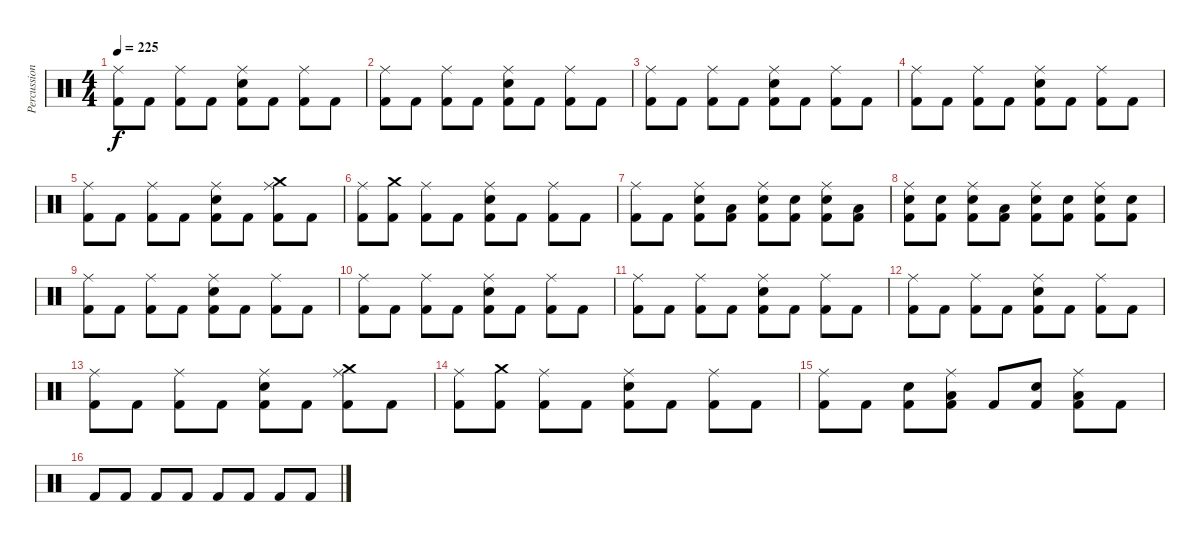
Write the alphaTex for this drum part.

\track ("Percussion" "Percussion") {instrument percussion}
\staff {score}
\articulation defaults
\ts (4 4)
\tempo 225
\clef neutral
\ks c
("Ride (middle)" "Kick (hit) 2").8{dy f volume 5} "Kick (hit) 2".8 ("Ride (middle)" "Kick (hit) 2").8 "Kick (hit) 2".8 ("Ride (middle)" "Snare (hit) 2" "Kick (hit) 2").8 "Kick (hit) 2".8 ("Ride (middle)" "Kick (hit) 2").8 "Kick (hit) 2".8 |
("Ride (middle)" "Kick (hit) 2").8 "Kick (hit) 2".8 ("Ride (middle)" "Kick (hit) 2").8 "Kick (hit) 2".8 ("Ride (middle)" "Snare (hit) 2" "Kick (hit) 2").8 "Kick (hit) 2".8 ("Ride (middle)" "Kick (hit) 2").8 "Kick (hit) 2".8 |
("Ride (middle)" "Kick (hit) 2").8 "Kick (hit) 2".8 ("Ride (middle)" "Kick (hit) 2").8 "Kick (hit) 2".8 ("Ride (middle)" "Snare (hit) 2" "Kick (hit) 2").8 "Kick (hit) 2".8 ("Ride (middle)" "Kick (hit) 2").8 "Kick (hit) 2".8 |
("Ride (middle)" "Kick (hit) 2").8 "Kick (hit) 2".8 ("Ride (middle)" "Kick (hit) 2").8 "Kick (hit) 2".8 ("Ride (middle)" "Snare (hit) 2" "Kick (hit) 2").8 "Kick (hit) 2".8 ("Ride (middle)" "Kick (hit) 2").8 "Kick (hit) 2".8 |
("Ride (middle)" "Kick (hit) 2").8 "Kick (hit) 2".8 ("Ride (middle)" "Kick (hit) 2").8 "Kick (hit) 2".8 ("Ride (middle)" "Snare (hit) 2" "Kick (hit) 2").8 "Kick (hit) 2".8 ("Ride (middle)" "Crash medium (hit)" "Kick (hit) 2").8 "Kick (hit) 2".8 |
("Ride (middle)" "Kick (hit) 2").8 ("Crash medium (hit)" "Kick (hit) 2").8 ("Ride (middle)" "Kick (hit) 2").8 "Kick (hit) 2".8 ("Ride (middle)" "Snare (hit) 2" "Kick (hit) 2").8 "Kick (hit) 2".8 ("Ride (middle)" "Kick (hit) 2").8 "Kick (hit) 2".8 |
("Ride (middle)" "Kick (hit) 2").8 "Kick (hit) 2".8 ("Ride (middle)" "Electric Snare (hit)" "Kick (hit) 2").8 ("Low Floor Tom (hit)" "Kick (hit) 2").8 ("Ride (middle)" "Snare (hit) 2" "Kick (hit) 2").8 ("Snare (hit) 2" "Kick (hit) 2").8 ("Ride (middle)" "Electric Snare (hit)" "Kick (hit) 2").8 ("Low Floor Tom (hit)" "Kick (hit) 2").8 |
("Ride (middle)" "Snare (hit) 2" "Kick (hit) 2").8 ("Snare (hit) 2" "Kick (hit) 2").8 ("Ride (middle)" "Electric Snare (hit)" "Kick (hit) 2").8 ("Low Floor Tom (hit)" "Kick (hit) 2").8 ("Ride (middle)" "Snare (hit) 2" "Kick (hit) 2").8 ("Snare (hit) 2" "Kick (hit) 2").8 ("Ride (middle)" "Snare (hit) 2" "Kick (hit) 2").8 ("Snare (hit) 2" "Kick (hit) 2").8 |
("Ride (middle)" "Kick (hit) 2").8 "Kick (hit) 2".8 ("Ride (middle)" "Kick (hit) 2").8 "Kick (hit) 2".8 ("Ride (middle)" "Snare (hit) 2" "Kick (hit) 2").8 "Kick (hit) 2".8 ("Ride (middle)" "Kick (hit) 2").8 "Kick (hit) 2".8 |
("Ride (middle)" "Kick (hit) 2").8 "Kick (hit) 2".8 ("Ride (middle)" "Kick (hit) 2").8 "Kick (hit) 2".8 ("Ride (middle)" "Snare (hit) 2" "Kick (hit) 2").8 "Kick (hit) 2".8 ("Ride (middle)" "Kick (hit) 2").8 "Kick (hit) 2".8 |
("Ride (middle)" "Kick (hit) 2").8 "Kick (hit) 2".8 ("Ride (middle)" "Kick (hit) 2").8 "Kick (hit) 2".8 ("Ride (middle)" "Snare (hit) 2" "Kick (hit) 2").8 "Kick (hit) 2".8 ("Ride (middle)" "Kick (hit) 2").8 "Kick (hit) 2".8 |
("Ride (middle)" "Kick (hit) 2").8 "Kick (hit) 2".8 ("Ride (middle)" "Kick (hit) 2").8 "Kick (hit) 2".8 ("Ride (middle)" "Snare (hit) 2" "Kick (hit) 2").8 "Kick (hit) 2".8 ("Ride (middle)" "Kick (hit) 2").8 "Kick (hit) 2".8 |
("Ride (middle)" "Kick (hit) 2").8 "Kick (hit) 2".8 ("Ride (middle)" "Kick (hit) 2").8 "Kick (hit) 2".8 ("Ride (middle)" "Snare (hit) 2" "Kick (hit) 2").8 "Kick (hit) 2".8 ("Ride (middle)" "Crash medium (hit)" "Kick (hit) 2").8 "Kick (hit) 2".8 |
("Ride (middle)" "Kick (hit) 2").8 ("Crash medium (hit)" "Kick (hit) 2").8 ("Ride (middle)" "Kick (hit) 2").8 "Kick (hit) 2".8 ("Ride (middle)" "Snare (hit) 2" "Kick (hit) 2").8 "Kick (hit) 2".8 ("Ride (middle)" "Kick (hit) 2").8 "Kick (hit) 2".8 |
("Ride (middle)" "Kick (hit) 2").8 "Kick (hit) 2".8 ("Snare (hit) 2" "Kick (hit) 2").8 ("Ride (middle)" "Low Tom (hit)" "Kick (hit) 2").8 "Kick (hit) 2".8 ("Snare (hit) 2" "Kick (hit) 2").8 ("Ride (middle)" "Low Tom (hit)" "Kick (hit) 2").8 "Kick (hit) 2".8 |
"Kick (hit) 2".8 "Kick (hit) 2".8 "Kick (hit) 2".8 "Kick (hit) 2".8 "Kick (hit) 2".8 "Kick (hit) 2".8 "Kick (hit) 2".8 "Kick (hit) 2".8
